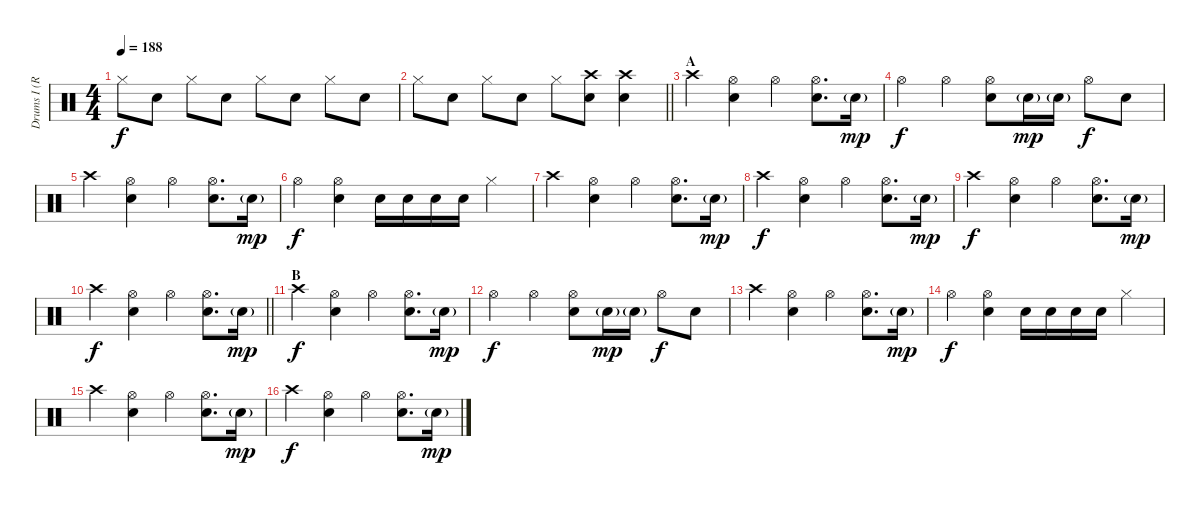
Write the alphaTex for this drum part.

\track ("Drums I (Ruka)" "Drums I (R") {instrument percussion}
\staff {score}
\articulation defaults
\ts (4 4)
\tempo 188
\clef neutral
\ks c "Hi-Hat (closed)".8{dy f} "Snare (hit) 2".8 "Hi-Hat (closed)".8 "Snare (hit) 2".8 "Hi-Hat (closed)".8 "Snare (hit) 2".8 "Hi-Hat (closed)".8 "Snare (hit) 2".8
|
\barLineRight lightlight "Hi-Hat (closed)".8 "Snare (hit) 2".8 "Hi-Hat (closed)".8 "Snare (hit) 2".8 "Hi-Hat (closed)".8
("Crash high (hit)" "Snare (hit) 2").8 ("Crash high (hit)" "Snare (hit) 2").4 |
\section ("" "A")
"Crash high (hit)".4 ("Hi-Hat (open)" "Snare (hit) 2").4 "Hi-Hat (open)".4 ("Hi-Hat (open)" "Snare (hit) 2").8{d} "Snare (hit) 2"{g}.16{dy mp} |
"Hi-Hat (open)".4{dy f} "Hi-Hat (open)".4 ("Hi-Hat (open)" "Snare (hit) 2").8 "Snare (hit) 2"{g}.16{dy mp} "Snare (hit) 2"{g}.16 "Hi-Hat (open)".8{dy f} "Snare (hit) 2".8 |
"Crash high (hit)".4 ("Hi-Hat (open)" "Snare (hit) 2").4 "Hi-Hat (open)".4 ("Hi-Hat (open)" "Snare (hit) 2").8{d} "Snare (hit) 2"{g}.16{dy mp} |
"Hi-Hat (open)".4{dy f} ("Hi-Hat (open)" "Snare (hit) 2").4 "Snare (hit) 2".16 "Snare (hit) 2".16 "Snare (hit) 2".16 "Snare (hit) 2".16 "Hi-Hat (closed)".4 |
"Crash high (hit)".4 ("Hi-Hat (open)" "Snare (hit) 2").4 "Hi-Hat (open)".4 ("Hi-Hat (open)" "Snare (hit) 2").8{d} "Snare (hit) 2"{g}.16{dy mp} |
"Crash high (hit)".4{dy f} ("Hi-Hat (open)" "Snare (hit) 2").4 "Hi-Hat (open)".4 ("Hi-Hat (open)" "Snare (hit) 2").8{d} "Snare (hit) 2"{g}.16{dy mp} |
"Crash high (hit)".4{dy f} ("Hi-Hat (open)" "Snare (hit) 2").4 "Hi-Hat (open)".4 ("Hi-Hat (open)" "Snare (hit) 2").8{d} "Snare (hit) 2"{g}.16{dy mp} |
\barLineRight lightlight "Crash high (hit)".4{dy f}
("Hi-Hat (open)" "Snare (hit) 2").4 "Hi-Hat (open)".4 ("Hi-Hat (open)" "Snare (hit) 2").8{d} "Snare (hit) 2"{g}.16{dy mp} |
\section ("" "B")
"Crash high (hit)".4{dy f} ("Hi-Hat (open)" "Snare (hit) 2").4 "Hi-Hat (open)".4 ("Hi-Hat (open)" "Snare (hit) 2").8{d} "Snare (hit) 2"{g}.16{dy mp} |
"Hi-Hat (open)".4{dy f} "Hi-Hat (open)".4 ("Hi-Hat (open)" "Snare (hit) 2").8 "Snare (hit) 2"{g}.16{dy mp} "Snare (hit) 2"{g}.16 "Hi-Hat (open)".8{dy f} "Snare (hit) 2".8 |
"Crash high (hit)".4 ("Hi-Hat (open)" "Snare (hit) 2").4 "Hi-Hat (open)".4 ("Hi-Hat (open)" "Snare (hit) 2").8{d} "Snare (hit) 2"{g}.16{dy mp} |
"Hi-Hat (open)".4{dy f} ("Hi-Hat (open)" "Snare (hit) 2").4 "Snare (hit) 2".16 "Snare (hit) 2".16 "Snare (hit) 2".16 "Snare (hit) 2".16 "Hi-Hat (closed)".4 |
"Crash high (hit)".4 ("Hi-Hat (open)" "Snare (hit) 2").4 "Hi-Hat (open)".4 ("Hi-Hat (open)" "Snare (hit) 2").8{d} "Snare (hit) 2"{g}.16{dy mp} |
"Crash high (hit)".4{dy f} ("Hi-Hat (open)" "Snare (hit) 2").4 "Hi-Hat (open)".4 ("Hi-Hat (open)" "Snare (hit) 2").8{d} "Snare (hit) 2"{g}.16{dy mp}
